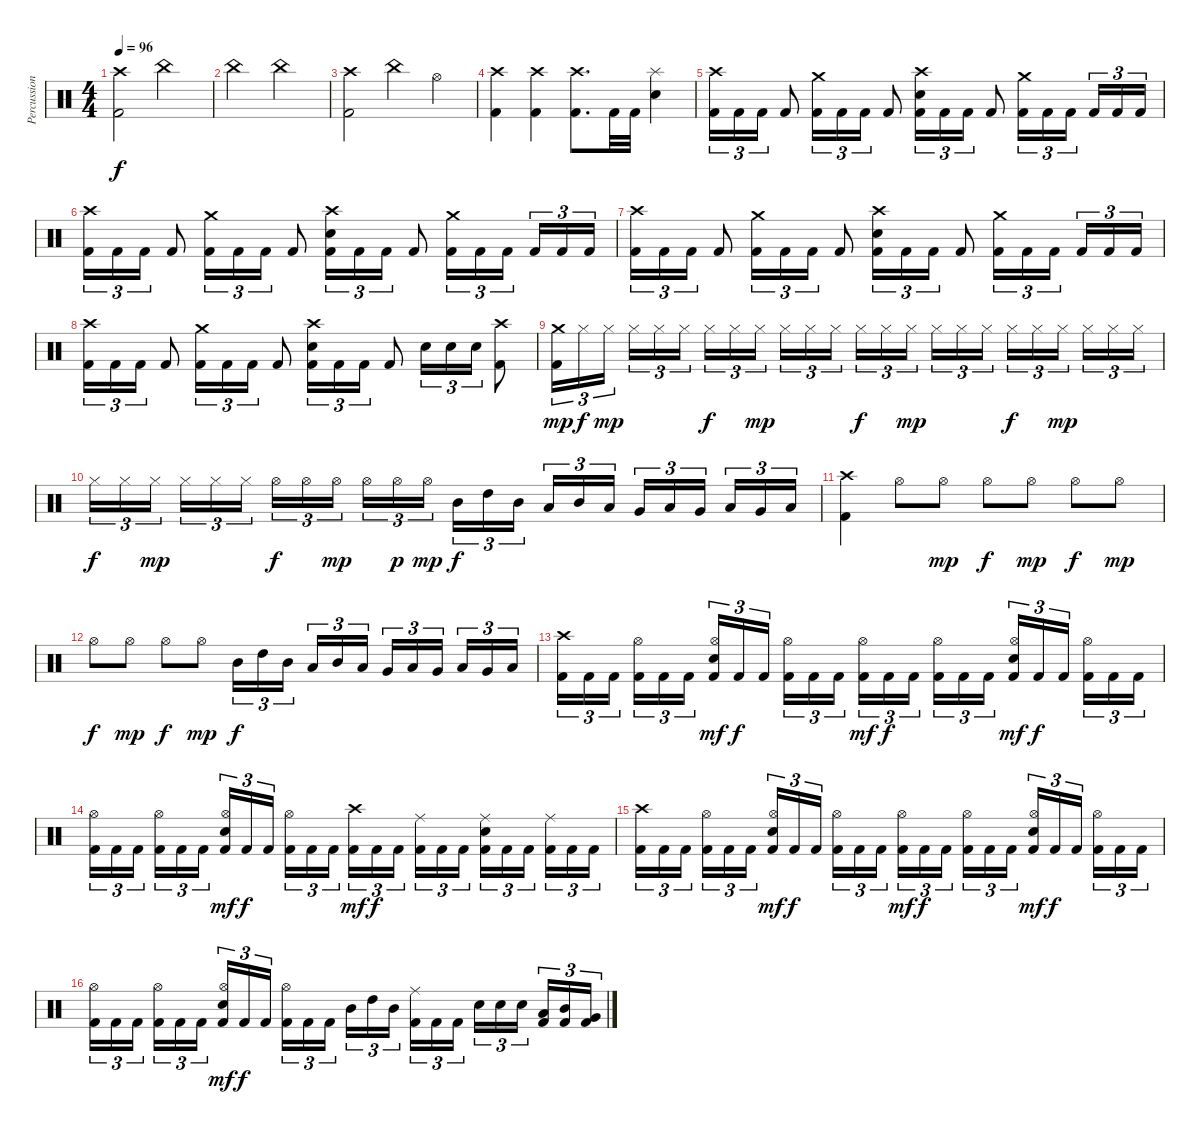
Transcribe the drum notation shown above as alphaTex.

\track ("Percussion" "Percussion") {instrument percussion}
\staff {score}
\articulation defaults
\ts (4 4)
\tempo 96
\clef neutral
\ks c
("Crash high (hit)" "Kick (hit) 2").2{dy f} "China (hit)".2 |
"China (hit)".2 "China (hit)".2 |
("Crash high (hit)" "Kick (hit) 2").2 "China (hit)".4 "Hi-Hat (open)".4 |
("Crash high (hit)" "Kick (hit) 2").4 ("Crash high (hit)" "Kick (hit) 2").4 ("Crash high (hit)" "Kick (hit) 2").8{d} "Kick (hit) 2".32 "Kick (hit) 2".32 ("Splash (hit)" "Snare (hit) 2").4 |
("Crash high (hit)" "Kick (hit) 2").16{tu (3 2)} "Kick (hit) 2".16{tu (3 2)} "Kick (hit) 2".16{tu (3 2)} "Kick (hit) 2".8 ("Crash medium (hit)" "Kick (hit) 2").16{tu (3 2)} "Kick (hit) 2".16{tu (3 2)} "Kick (hit) 2".16{tu (3 2)} "Kick (hit) 2".8 ("Crash high (hit)" "Snare (hit) 2" "Kick (hit) 2").16{tu (3 2)} "Kick (hit) 2".16{tu (3 2)} "Kick (hit) 2".16{tu (3 2)} "Kick (hit) 2".8 ("Crash medium (hit)" "Kick (hit) 2").16{tu (3 2)} "Kick (hit) 2".16{tu (3 2)} "Kick (hit) 2".16{tu (3 2) beam splitsecondary} "Kick (hit) 2".16{tu (3 2)} "Kick (hit) 2".16{tu (3 2)} "Kick (hit) 2".16{tu (3 2)} |
("Crash high (hit)" "Kick (hit) 2").16{tu (3 2)} "Kick (hit) 2".16{tu (3 2)} "Kick (hit) 2".16{tu (3 2)} "Kick (hit) 2".8 ("Crash medium (hit)" "Kick (hit) 2").16{tu (3 2)} "Kick (hit) 2".16{tu (3 2)} "Kick (hit) 2".16{tu (3 2)} "Kick (hit) 2".8 ("Crash high (hit)" "Snare (hit) 2" "Kick (hit) 2").16{tu (3 2)} "Kick (hit) 2".16{tu (3 2)} "Kick (hit) 2".16{tu (3 2)} "Kick (hit) 2".8 ("Crash medium (hit)" "Kick (hit) 2").16{tu (3 2)} "Kick (hit) 2".16{tu (3 2)} "Kick (hit) 2".16{tu (3 2) beam splitsecondary} "Kick (hit) 2".16{tu (3 2)} "Kick (hit) 2".16{tu (3 2)} "Kick (hit) 2".16{tu (3 2)} |
("Crash high (hit)" "Kick (hit) 2").16{tu (3 2)} "Kick (hit) 2".16{tu (3 2)} "Kick (hit) 2".16{tu (3 2)} "Kick (hit) 2".8 ("Crash medium (hit)" "Kick (hit) 2").16{tu (3 2)} "Kick (hit) 2".16{tu (3 2)} "Kick (hit) 2".16{tu (3 2)} "Kick (hit) 2".8 ("Crash high (hit)" "Snare (hit) 2" "Kick (hit) 2").16{tu (3 2)} "Kick (hit) 2".16{tu (3 2)} "Kick (hit) 2".16{tu (3 2)} "Kick (hit) 2".8 ("Crash medium (hit)" "Kick (hit) 2").16{tu (3 2)} "Kick (hit) 2".16{tu (3 2)} "Kick (hit) 2".16{tu (3 2) beam splitsecondary} "Kick (hit) 2".16{tu (3 2)} "Kick (hit) 2".16{tu (3 2)} "Kick (hit) 2".16{tu (3 2)} |
("Crash high (hit)" "Kick (hit) 2").16{tu (3 2)} "Kick (hit) 2".16{tu (3 2)} "Kick (hit) 2".16{tu (3 2)} "Kick (hit) 2".8 ("Crash medium (hit)" "Kick (hit) 2").16{tu (3 2)} "Kick (hit) 2".16{tu (3 2)} "Kick (hit) 2".16{tu (3 2)} "Kick (hit) 2".8 ("Crash high (hit)" "Snare (hit) 2" "Kick (hit) 2").16{tu (3 2)} "Kick (hit) 2".16{tu (3 2)} "Kick (hit) 2".16{tu (3 2)} "Kick (hit) 2".8 "Snare (hit) 2".16{tu (3 2)} "Snare (hit) 2".16{tu (3 2)} "Snare (hit) 2".16{tu (3 2)} ("Crash high (hit)" "Kick (hit) 2").8 |
("Crash medium (hit)" "Kick (hit) 2").16{tu (3 2) dy mp} "Hi-Hat (closed)".16{tu (3 2) dy f} "Hi-Hat (closed)".16{tu (3 2) dy mp beam splitsecondary} "Hi-Hat (closed)".16{tu (3 2)} "Hi-Hat (closed)".16{tu (3 2)} "Hi-Hat (closed)".16{tu (3 2)} "Hi-Hat (closed)".16{tu (3 2) dy f} "Hi-Hat (closed)".16{tu (3 2)} "Hi-Hat (closed)".16{tu (3 2) dy mp beam splitsecondary} "Hi-Hat (closed)".16{tu (3 2)} "Hi-Hat (closed)".16{tu (3 2)} "Hi-Hat (closed)".16{tu (3 2)} "Hi-Hat (closed)".16{tu (3 2) dy f} "Hi-Hat (closed)".16{tu (3 2)} "Hi-Hat (closed)".16{tu (3 2) dy mp beam splitsecondary} "Hi-Hat (closed)".16{tu (3 2)} "Hi-Hat (closed)".16{tu (3 2)} "Hi-Hat (closed)".16{tu (3 2)} "Hi-Hat (closed)".16{tu (3 2) dy f} "Hi-Hat (closed)".16{tu (3 2)} "Hi-Hat (closed)".16{tu (3 2) dy mp beam splitsecondary} "Hi-Hat (closed)".16{tu (3 2)} "Hi-Hat (closed)".16{tu (3 2)} "Hi-Hat (closed)".16{tu (3 2)} |
"Hi-Hat (closed)".16{tu (3 2) dy f} "Hi-Hat (closed)".16{tu (3 2)} "Hi-Hat (closed)".16{tu (3 2) dy mp beam splitsecondary} "Hi-Hat (closed)".16{tu (3 2)} "Hi-Hat (closed)".16{tu (3 2)} "Hi-Hat (closed)".16{tu (3 2)} "Hi-Hat (open)".16{tu (3 2) dy f} "Hi-Hat (open)".16{tu (3 2)} "Hi-Hat (open)".16{tu (3 2) dy mp beam splitsecondary} "Hi-Hat (open)".16{tu (3 2)} "Hi-Hat (open)".16{tu (3 2) dy p} "Hi-Hat (open)".16{tu (3 2) dy mp} "Mid Tom (hit)".16{tu (3 2) dy f} "High Tom (hit)".16{tu (3 2)} "Mid Tom (hit)".16{tu (3 2) beam splitsecondary} "Low Tom (hit)".16{tu (3 2)} "Mid Tom (hit)".16{tu (3 2)} "Low Tom (hit)".16{tu (3 2)} "Very Low Tom (hit)".16{tu (3 2)} "Low Tom (hit)".16{tu (3 2)} "Very Low Tom (hit)".16{tu (3 2) beam splitsecondary} "Low Floor Tom (hit)".16{tu (3 2)} "Very Low Tom (hit)".16{tu (3 2)} "Low Floor Tom (hit)".16{tu (3 2)} |
("Crash high (hit)" "Kick (hit) 2").4 "Hi-Hat (open)".8 "Hi-Hat (open)".8{dy mp} "Hi-Hat (open)".8{dy f} "Hi-Hat (open)".8{dy mp} "Hi-Hat (open)".8{dy f} "Hi-Hat (open)".8{dy mp} |
"Hi-Hat (open)".8{dy f} "Hi-Hat (open)".8{dy mp} "Hi-Hat (open)".8{dy f} "Hi-Hat (open)".8{dy mp} "Mid Tom (hit)".16{tu (3 2) dy f} "High Tom (hit)".16{tu (3 2)} "Mid Tom (hit)".16{tu (3 2) beam splitsecondary} "Low Tom (hit)".16{tu (3 2)} "Mid Tom (hit)".16{tu (3 2)} "Low Tom (hit)".16{tu (3 2)} "Very Low Tom (hit)".16{tu (3 2)} "Low Tom (hit)".16{tu (3 2)} "Very Low Tom (hit)".16{tu (3 2) beam splitsecondary} "Low Floor Tom (hit)".16{tu (3 2)} "Very Low Tom (hit)".16{tu (3 2)} "Low Floor Tom (hit)".16{tu (3 2)} |
("Crash high (hit)" "Kick (hit) 2").16{tu (3 2)} "Kick (hit) 2".16{tu (3 2)} "Kick (hit) 2".16{tu (3 2) beam splitsecondary} ("Hi-Hat (open)" "Kick (hit) 2").16{tu (3 2)} "Kick (hit) 2".16{tu (3 2)} "Kick (hit) 2".16{tu (3 2)} ("Hi-Hat (open)" "Snare (hit) 2" "Kick (hit) 2").16{tu (3 2) dy mf} "Kick (hit) 2".16{tu (3 2) dy f} "Kick (hit) 2".16{tu (3 2) beam splitsecondary} ("Hi-Hat (open)" "Kick (hit) 2").16{tu (3 2)} "Kick (hit) 2".16{tu (3 2)} "Kick (hit) 2".16{tu (3 2)} ("Hi-Hat (open)" "Kick (hit) 2").16{tu (3 2) dy mf} "Kick (hit) 2".16{tu (3 2) dy f} "Kick (hit) 2".16{tu (3 2) beam splitsecondary} ("Hi-Hat (open)" "Kick (hit) 2").16{tu (3 2)} "Kick (hit) 2".16{tu (3 2)} "Kick (hit) 2".16{tu (3 2)} ("Hi-Hat (open)" "Snare (hit) 2" "Kick (hit) 2").16{tu (3 2) dy mf} "Kick (hit) 2".16{tu (3 2) dy f} "Kick (hit) 2".16{tu (3 2) beam splitsecondary} ("Hi-Hat (open)" "Kick (hit) 2").16{tu (3 2)} "Kick (hit) 2".16{tu (3 2)} "Kick (hit) 2".16{tu (3 2)} |
("Hi-Hat (open)" "Kick (hit) 2").16{tu (3 2)} "Kick (hit) 2".16{tu (3 2)} "Kick (hit) 2".16{tu (3 2) beam splitsecondary} ("Hi-Hat (open)" "Kick (hit) 2").16{tu (3 2)} "Kick (hit) 2".16{tu (3 2)} "Kick (hit) 2".16{tu (3 2)} ("Hi-Hat (open)" "Snare (hit) 2" "Kick (hit) 2").16{tu (3 2) dy mf} "Kick (hit) 2".16{tu (3 2) dy f} "Kick (hit) 2".16{tu (3 2) beam splitsecondary} ("Hi-Hat (open)" "Kick (hit) 2").16{tu (3 2)} "Kick (hit) 2".16{tu (3 2)} "Kick (hit) 2".16{tu (3 2)} ("Crash high (hit)" "Kick (hit) 2").16{tu (3 2) dy mf} "Kick (hit) 2".16{tu (3 2) dy f} "Kick (hit) 2".16{tu (3 2) beam splitsecondary} ("Ride (middle)" "Kick (hit) 2").16{tu (3 2)} "Kick (hit) 2".16{tu (3 2)} "Kick (hit) 2".16{tu (3 2)} ("Ride (middle)" "Snare (hit) 2" "Kick (hit) 2").16{tu (3 2)} "Kick (hit) 2".16{tu (3 2)} "Kick (hit) 2".16{tu (3 2) beam splitsecondary} ("Ride (middle)" "Kick (hit) 2").16{tu (3 2)} "Kick (hit) 2".16{tu (3 2)} "Kick (hit) 2".16{tu (3 2)} |
("Crash high (hit)" "Kick (hit) 2").16{tu (3 2)} "Kick (hit) 2".16{tu (3 2)} "Kick (hit) 2".16{tu (3 2) beam splitsecondary} ("Hi-Hat (open)" "Kick (hit) 2").16{tu (3 2)} "Kick (hit) 2".16{tu (3 2)} "Kick (hit) 2".16{tu (3 2)} ("Hi-Hat (open)" "Snare (hit) 2" "Kick (hit) 2").16{tu (3 2) dy mf} "Kick (hit) 2".16{tu (3 2) dy f} "Kick (hit) 2".16{tu (3 2) beam splitsecondary} ("Hi-Hat (open)" "Kick (hit) 2").16{tu (3 2)} "Kick (hit) 2".16{tu (3 2)} "Kick (hit) 2".16{tu (3 2)} ("Hi-Hat (open)" "Kick (hit) 2").16{tu (3 2) dy mf} "Kick (hit) 2".16{tu (3 2) dy f} "Kick (hit) 2".16{tu (3 2) beam splitsecondary} ("Hi-Hat (open)" "Kick (hit) 2").16{tu (3 2)} "Kick (hit) 2".16{tu (3 2)} "Kick (hit) 2".16{tu (3 2)} ("Hi-Hat (open)" "Snare (hit) 2" "Kick (hit) 2").16{tu (3 2) dy mf} "Kick (hit) 2".16{tu (3 2) dy f} "Kick (hit) 2".16{tu (3 2) beam splitsecondary} ("Hi-Hat (open)" "Kick (hit) 2").16{tu (3 2)} "Kick (hit) 2".16{tu (3 2)} "Kick (hit) 2".16{tu (3 2)} |
("Hi-Hat (open)" "Kick (hit) 2").16{tu (3 2)} "Kick (hit) 2".16{tu (3 2)} "Kick (hit) 2".16{tu (3 2) beam splitsecondary} ("Hi-Hat (open)" "Kick (hit) 2").16{tu (3 2)} "Kick (hit) 2".16{tu (3 2)} "Kick (hit) 2".16{tu (3 2)} ("Hi-Hat (open)" "Snare (hit) 2" "Kick (hit) 2").16{tu (3 2) dy mf} "Kick (hit) 2".16{tu (3 2) dy f} "Kick (hit) 2".16{tu (3 2) beam splitsecondary} ("Hi-Hat (open)" "Kick (hit) 2").16{tu (3 2)} "Kick (hit) 2".16{tu (3 2)} "Kick (hit) 2".16{tu (3 2)} "Mid Tom (hit)".16{tu (3 2)} "High Tom (hit)".16{tu (3 2)} "Mid Tom (hit)".16{tu (3 2) beam splitsecondary} ("Ride (middle)" "Kick (hit) 2").16{tu (3 2)} "Kick (hit) 2".16{tu (3 2)} "Kick (hit) 2".16{tu (3 2)} "Snare (hit) 2".16{tu (3 2)} "Snare (hit) 2".16{tu (3 2)} "Snare (hit) 2".16{tu (3 2) beam splitsecondary} ("Low Tom (hit)" "Kick (hit) 2").16{tu (3 2)} ("Mid Tom (hit)" "Kick (hit) 2").16{tu (3 2)} ("Very Low Tom (hit)" "Kick (hit) 2").16{tu (3 2)}
